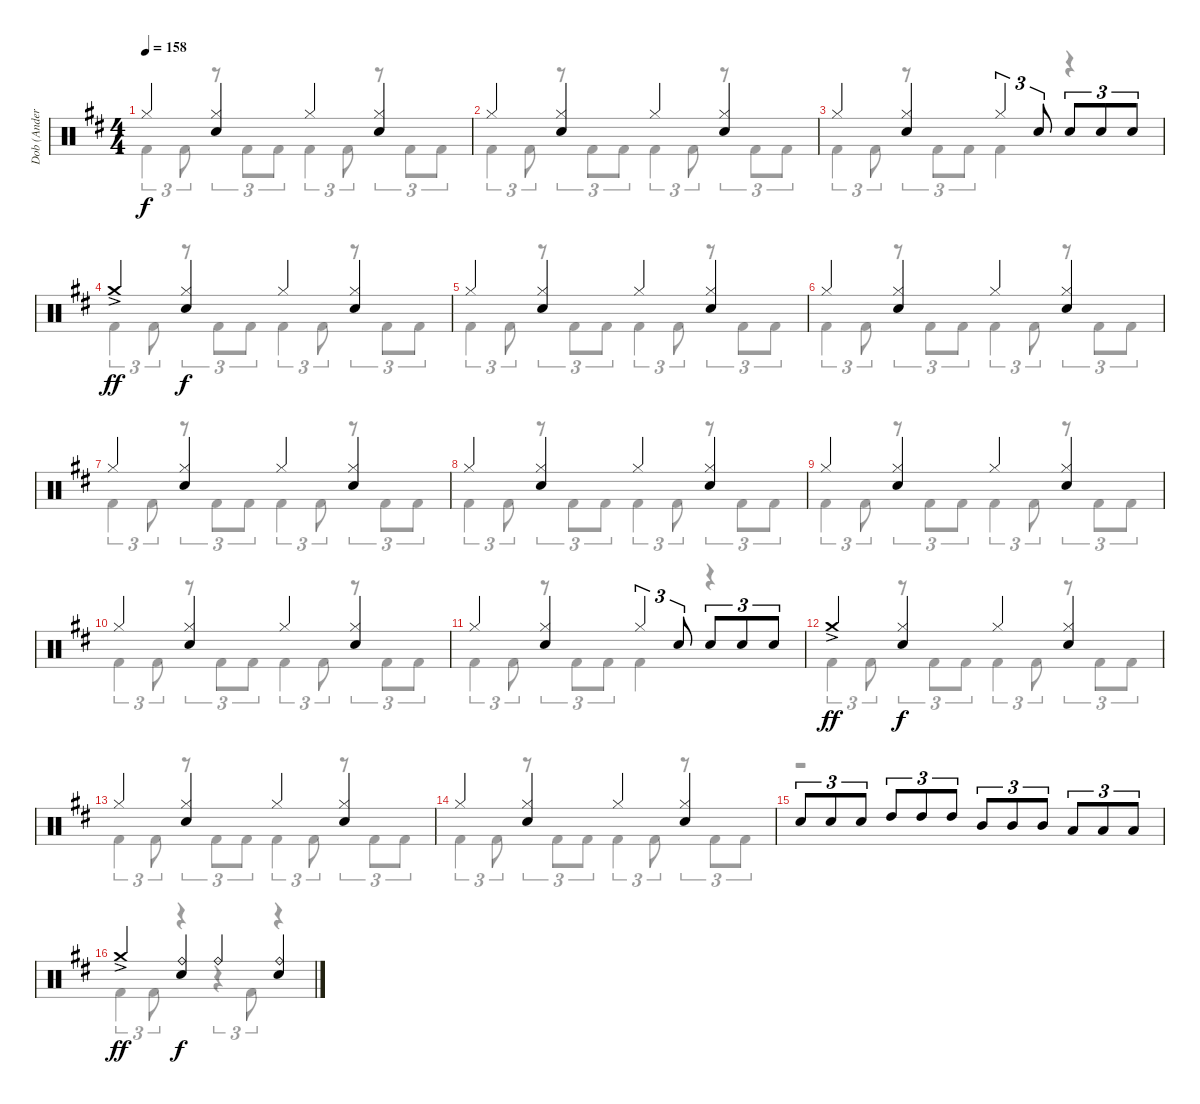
\track ("Dob (Anders Johansson)" "Dob (Ander") {instrument percussion}
\staff {score}
\articulation defaults
\voice
\ts (4 4)
\tempo 158
\clef neutral
\ks d "Hi-Hat (closed)".4{dy f}
("Hi-Hat (closed)" "Electric Snare (hit)").4 "Hi-Hat (closed)".4 ("Hi-Hat (closed)" "Electric Snare (hit)").4 |
"Hi-Hat (closed)".4 ("Hi-Hat (closed)" "Electric Snare (hit)").4 "Hi-Hat (closed)".4 ("Hi-Hat (closed)" "Electric Snare (hit)").4 |
"Hi-Hat (closed)".4 ("Hi-Hat (closed)" "Electric Snare (hit)").4 "Hi-Hat (closed)".4{tu (3 2)} "Electric Snare (hit)".8{tu (3 2)} "Electric Snare (hit)".8{tu (3 2)} "Electric Snare (hit)".8{tu (3 2)} "Electric Snare (hit)".8{tu (3 2)} |
"Crash medium (hit)"{ac}.4{dy ff} ("Hi-Hat (closed)" "Electric Snare (hit)").4{dy f} "Hi-Hat (closed)".4 ("Hi-Hat (closed)" "Electric Snare (hit)").4 |
"Hi-Hat (closed)".4 ("Hi-Hat (closed)" "Electric Snare (hit)").4 "Hi-Hat (closed)".4 ("Hi-Hat (closed)" "Electric Snare (hit)").4 |
"Hi-Hat (closed)".4 ("Hi-Hat (closed)" "Electric Snare (hit)").4 "Hi-Hat (closed)".4 ("Hi-Hat (closed)" "Electric Snare (hit)").4 |
"Hi-Hat (closed)".4 ("Hi-Hat (closed)" "Electric Snare (hit)").4 "Hi-Hat (closed)".4 ("Hi-Hat (closed)" "Electric Snare (hit)").4 |
"Hi-Hat (closed)".4 ("Hi-Hat (closed)" "Electric Snare (hit)").4 "Hi-Hat (closed)".4 ("Hi-Hat (closed)" "Electric Snare (hit)").4 |
"Hi-Hat (closed)".4 ("Hi-Hat (closed)" "Electric Snare (hit)").4 "Hi-Hat (closed)".4 ("Hi-Hat (closed)" "Electric Snare (hit)").4 |
"Hi-Hat (closed)".4 ("Hi-Hat (closed)" "Electric Snare (hit)").4 "Hi-Hat (closed)".4 ("Hi-Hat (closed)" "Electric Snare (hit)").4 |
"Hi-Hat (closed)".4 ("Hi-Hat (closed)" "Electric Snare (hit)").4 "Hi-Hat (closed)".4{tu (3 2)} "Electric Snare (hit)".8{tu (3 2)} "Electric Snare (hit)".8{tu (3 2)} "Electric Snare (hit)".8{tu (3 2)} "Electric Snare (hit)".8{tu (3 2)} |
"Crash medium (hit)"{ac}.4{dy ff} ("Hi-Hat (closed)" "Electric Snare (hit)").4{dy f} "Hi-Hat (closed)".4 ("Hi-Hat (closed)" "Electric Snare (hit)").4 |
"Hi-Hat (closed)".4 ("Hi-Hat (closed)" "Electric Snare (hit)").4 "Hi-Hat (closed)".4 ("Hi-Hat (closed)" "Electric Snare (hit)").4 |
"Hi-Hat (closed)".4 ("Hi-Hat (closed)" "Electric Snare (hit)").4 "Hi-Hat (closed)".4 ("Hi-Hat (closed)" "Electric Snare (hit)").4 |
"Electric Snare (hit)".8{tu (3 2)} "Electric Snare (hit)".8{tu (3 2)} "Electric Snare (hit)".8{tu (3 2)} "High Tom (hit)".8{tu (3 2)} "High Tom (hit)".8{tu (3 2)} "High Tom (hit)".8{tu (3 2)} "Mid Tom (hit)".8{tu (3 2)} "Mid Tom (hit)".8{tu (3 2)} "Mid Tom (hit)".8{tu (3 2)} "Low Tom (hit)".8{tu (3 2)} "Low Tom (hit)".8{tu (3 2)} "Low Tom (hit)".8{tu (3 2)} |
"Crash medium (hit)"{ac}.4{dy ff} ("Ride (bell)" "Electric Snare (hit)").4{dy f} "Ride (bell)".4 ("Ride (bell)" "Electric Snare (hit)").4
\voice
\clef neutral
\ottava regular
\simile none
\ks d "Kick (hit) 2".4{tu (3 2) dy f} "Kick (hit) 2".8{tu (3 2)}
r.8{tu (3 2)} "Kick (hit) 2".8{tu (3 2)} "Kick (hit) 2".8{tu (3 2)} "Kick (hit) 2".4{tu (3 2)} "Kick (hit) 2".8{tu (3 2)} r.8{tu (3 2)} "Kick (hit) 2".8{tu (3 2)} "Kick (hit) 2".8{tu (3 2)} |
"Kick (hit) 2".4{tu (3 2)} "Kick (hit) 2".8{tu (3 2)} r.8{tu (3 2)} "Kick (hit) 2".8{tu (3 2)} "Kick (hit) 2".8{tu (3 2)} "Kick (hit) 2".4{tu (3 2)} "Kick (hit) 2".8{tu (3 2)} r.8{tu (3 2)} "Kick (hit) 2".8{tu (3 2)} "Kick (hit) 2".8{tu (3 2)} |
"Kick (hit) 2".4{tu (3 2)} "Kick (hit) 2".8{tu (3 2)} r.8{tu (3 2)} "Kick (hit) 2".8{tu (3 2)} "Kick (hit) 2".8{tu (3 2)} "Kick (hit) 2".4 r.4 |
"Kick (hit) 2".4{tu (3 2)} "Kick (hit) 2".8{tu (3 2)} r.8{tu (3 2)} "Kick (hit) 2".8{tu (3 2)} "Kick (hit) 2".8{tu (3 2)} "Kick (hit) 2".4{tu (3 2)} "Kick (hit) 2".8{tu (3 2)} r.8{tu (3 2)} "Kick (hit) 2".8{tu (3 2)} "Kick (hit) 2".8{tu (3 2)} |
"Kick (hit) 2".4{tu (3 2)} "Kick (hit) 2".8{tu (3 2)} r.8{tu (3 2)} "Kick (hit) 2".8{tu (3 2)} "Kick (hit) 2".8{tu (3 2)} "Kick (hit) 2".4{tu (3 2)} "Kick (hit) 2".8{tu (3 2)} r.8{tu (3 2)} "Kick (hit) 2".8{tu (3 2)} "Kick (hit) 2".8{tu (3 2)} |
"Kick (hit) 2".4{tu (3 2)} "Kick (hit) 2".8{tu (3 2)} r.8{tu (3 2)} "Kick (hit) 2".8{tu (3 2)} "Kick (hit) 2".8{tu (3 2)} "Kick (hit) 2".4{tu (3 2)} "Kick (hit) 2".8{tu (3 2)} r.8{tu (3 2)} "Kick (hit) 2".8{tu (3 2)} "Kick (hit) 2".8{tu (3 2)} |
"Kick (hit) 2".4{tu (3 2)} "Kick (hit) 2".8{tu (3 2)} r.8{tu (3 2)} "Kick (hit) 2".8{tu (3 2)} "Kick (hit) 2".8{tu (3 2)} "Kick (hit) 2".4{tu (3 2)} "Kick (hit) 2".8{tu (3 2)} r.8{tu (3 2)} "Kick (hit) 2".8{tu (3 2)} "Kick (hit) 2".8{tu (3 2)} |
"Kick (hit) 2".4{tu (3 2)} "Kick (hit) 2".8{tu (3 2)} r.8{tu (3 2)} "Kick (hit) 2".8{tu (3 2)} "Kick (hit) 2".8{tu (3 2)} "Kick (hit) 2".4{tu (3 2)} "Kick (hit) 2".8{tu (3 2)} r.8{tu (3 2)} "Kick (hit) 2".8{tu (3 2)} "Kick (hit) 2".8{tu (3 2)} |
"Kick (hit) 2".4{tu (3 2)} "Kick (hit) 2".8{tu (3 2)} r.8{tu (3 2)} "Kick (hit) 2".8{tu (3 2)} "Kick (hit) 2".8{tu (3 2)} "Kick (hit) 2".4{tu (3 2)} "Kick (hit) 2".8{tu (3 2)} r.8{tu (3 2)} "Kick (hit) 2".8{tu (3 2)} "Kick (hit) 2".8{tu (3 2)} |
"Kick (hit) 2".4{tu (3 2)} "Kick (hit) 2".8{tu (3 2)} r.8{tu (3 2)} "Kick (hit) 2".8{tu (3 2)} "Kick (hit) 2".8{tu (3 2)} "Kick (hit) 2".4{tu (3 2)} "Kick (hit) 2".8{tu (3 2)} r.8{tu (3 2)} "Kick (hit) 2".8{tu (3 2)} "Kick (hit) 2".8{tu (3 2)} |
"Kick (hit) 2".4{tu (3 2)} "Kick (hit) 2".8{tu (3 2)} r.8{tu (3 2)} "Kick (hit) 2".8{tu (3 2)} "Kick (hit) 2".8{tu (3 2)} "Kick (hit) 2".4 r.4 |
"Kick (hit) 2".4{tu (3 2)} "Kick (hit) 2".8{tu (3 2)} r.8{tu (3 2)} "Kick (hit) 2".8{tu (3 2)} "Kick (hit) 2".8{tu (3 2)} "Kick (hit) 2".4{tu (3 2)} "Kick (hit) 2".8{tu (3 2)} r.8{tu (3 2)} "Kick (hit) 2".8{tu (3 2)} "Kick (hit) 2".8{tu (3 2)} |
"Kick (hit) 2".4{tu (3 2)} "Kick (hit) 2".8{tu (3 2)} r.8{tu (3 2)} "Kick (hit) 2".8{tu (3 2)} "Kick (hit) 2".8{tu (3 2)} "Kick (hit) 2".4{tu (3 2)} "Kick (hit) 2".8{tu (3 2)} r.8{tu (3 2)} "Kick (hit) 2".8{tu (3 2)} "Kick (hit) 2".8{tu (3 2)} |
"Kick (hit) 2".4{tu (3 2)} "Kick (hit) 2".8{tu (3 2)} r.8{tu (3 2)} "Kick (hit) 2".8{tu (3 2)} "Kick (hit) 2".8{tu (3 2)} "Kick (hit) 2".4{tu (3 2)} "Kick (hit) 2".8{tu (3 2)} r.8{tu (3 2)} "Kick (hit) 2".8{tu (3 2)} "Kick (hit) 2".8{tu (3 2)} |
r.1 |
"Kick (hit) 2".4{tu (3 2)} "Kick (hit) 2".8{tu (3 2)} r.4 r.4{tu (3 2)} "Kick (hit) 2".8{tu (3 2)} r.4
